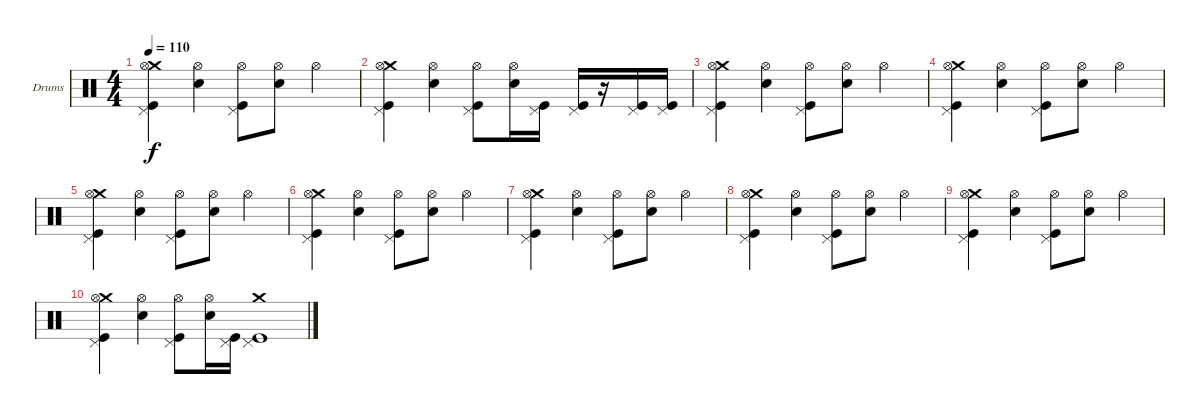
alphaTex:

\defaultSystemsLayout 4
\bracketExtendMode groupsimilarinstruments
\firstSystemTrackNameOrientation horizontal
\otherSystemsTrackNameOrientation horizontal
\track ("Е. Кулаков" "Drums") {instrument percussion}
\staff {score}
\articulation defaults
\ts (4 4)
\tempo 110
\clef neutral
\ks c
("Crash medium (hit)" "Pedal Hi-Hat (hit)" "Kick (hit)" "Hi-Hat (open)").4{dy f} ("Snare (hit) 2" "Hi-Hat (open)").4 ("Pedal Hi-Hat (hit)" "Kick (hit)" "Hi-Hat (open)").8 ("Snare (hit) 2" "Hi-Hat (open)").8 "Hi-Hat (open)".4 |
("Crash medium (hit)" "Pedal Hi-Hat (hit)" "Kick (hit)" "Hi-Hat (open)").4 ("Snare (hit) 2" "Hi-Hat (open)").4 ("Pedal Hi-Hat (hit)" "Kick (hit)" "Hi-Hat (open)").8 ("Snare (hit) 2" "Hi-Hat (open)").16 ("Pedal Hi-Hat (hit)" "Kick (hit)").16 ("Pedal Hi-Hat (hit)" "Kick (hit)").16 r.16 ("Pedal Hi-Hat (hit)" "Kick (hit)").16 ("Pedal Hi-Hat (hit)" "Kick (hit)").16 |
("Crash medium (hit)" "Pedal Hi-Hat (hit)" "Kick (hit)" "Hi-Hat (open)").4 ("Snare (hit) 2" "Hi-Hat (open)").4 ("Pedal Hi-Hat (hit)" "Kick (hit)" "Hi-Hat (open)").8 ("Snare (hit) 2" "Hi-Hat (open)").8 "Hi-Hat (open)".4 |
("Crash medium (hit)" "Pedal Hi-Hat (hit)" "Kick (hit)" "Hi-Hat (open)").4 ("Snare (hit) 2" "Hi-Hat (open)").4 ("Pedal Hi-Hat (hit)" "Kick (hit)" "Hi-Hat (open)").8 ("Snare (hit) 2" "Hi-Hat (open)").8 "Hi-Hat (open)".4 |
("Crash medium (hit)" "Pedal Hi-Hat (hit)" "Kick (hit)" "Hi-Hat (open)").4 ("Snare (hit) 2" "Hi-Hat (open)").4 ("Pedal Hi-Hat (hit)" "Kick (hit)" "Hi-Hat (open)").8 ("Snare (hit) 2" "Hi-Hat (open)").8 "Hi-Hat (open)".4 |
("Crash medium (hit)" "Pedal Hi-Hat (hit)" "Kick (hit)" "Hi-Hat (open)").4 ("Snare (hit) 2" "Hi-Hat (open)").4 ("Pedal Hi-Hat (hit)" "Kick (hit)" "Hi-Hat (open)").8 ("Snare (hit) 2" "Hi-Hat (open)").8 "Hi-Hat (open)".4 |
("Crash medium (hit)" "Pedal Hi-Hat (hit)" "Kick (hit)" "Hi-Hat (open)").4 ("Snare (hit) 2" "Hi-Hat (open)").4 ("Pedal Hi-Hat (hit)" "Kick (hit)" "Hi-Hat (open)").8 ("Snare (hit) 2" "Hi-Hat (open)").8 "Hi-Hat (open)".4 |
("Crash medium (hit)" "Pedal Hi-Hat (hit)" "Kick (hit)" "Hi-Hat (open)").4 ("Snare (hit) 2" "Hi-Hat (open)").4 ("Pedal Hi-Hat (hit)" "Kick (hit)" "Hi-Hat (open)").8 ("Snare (hit) 2" "Hi-Hat (open)").8 "Hi-Hat (open)".4 |
("Crash medium (hit)" "Pedal Hi-Hat (hit)" "Kick (hit)" "Hi-Hat (open)").4 ("Snare (hit) 2" "Hi-Hat (open)").4 ("Pedal Hi-Hat (hit)" "Kick (hit)" "Hi-Hat (open)").8 ("Snare (hit) 2" "Hi-Hat (open)").8 "Hi-Hat (open)".4 |
("Crash medium (hit)" "Pedal Hi-Hat (hit)" "Kick (hit)" "Hi-Hat (open)").4 ("Snare (hit) 2" "Hi-Hat (open)").4 ("Pedal Hi-Hat (hit)" "Kick (hit)" "Hi-Hat (open)").8 ("Snare (hit) 2" "Hi-Hat (open)").16 ("Pedal Hi-Hat (hit)" "Kick (hit)").16 ("Pedal Hi-Hat (hit)" "Kick (hit)" "Crash medium (hit)").1
